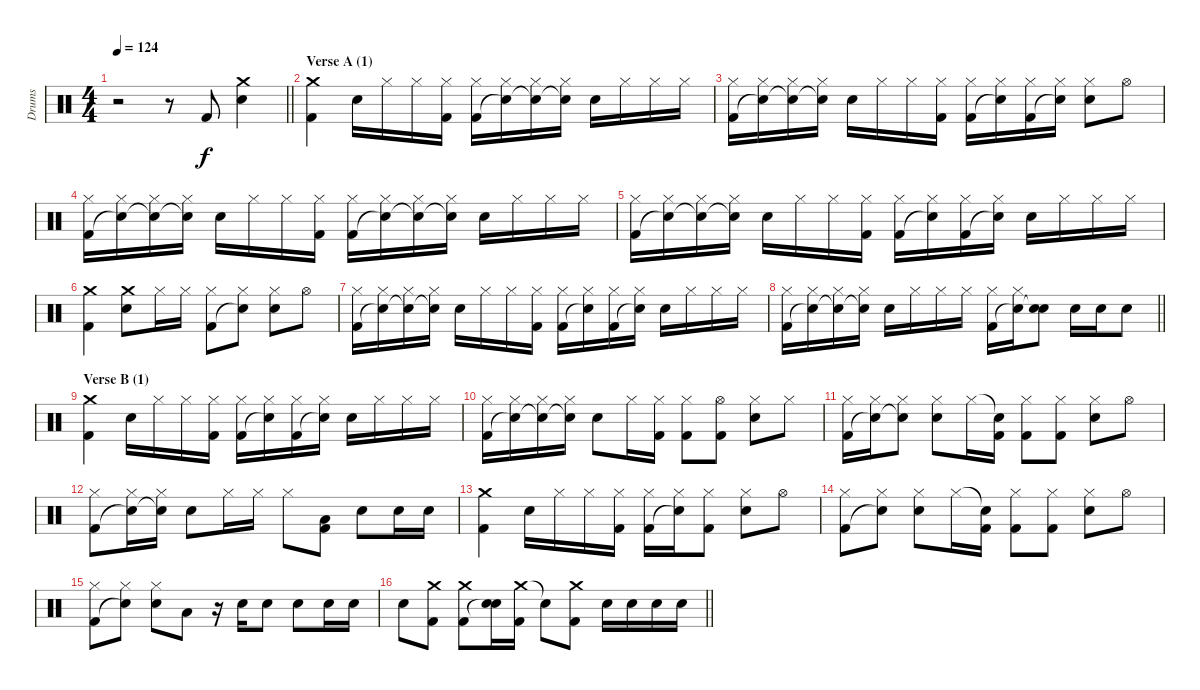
\track ("Drums" "Drums") {instrument percussion}
\staff {score}
\articulation defaults
\ts (4 4)
\tempo 124
\clef neutral
\barLineRight lightlight
\ks aminor
r.2{dy f} r.8 "Kick (hit) 2".8 ("Crash medium (hit)" "Electric Snare (hit)").4 |
\section ("" "Verse A (1)")
("Crash medium (hit)" "Kick (hit) 2").4 "Electric Snare (hit)".16 "Hi-Hat (closed)".16 "Hi-Hat (closed)".16 ("Hi-Hat (closed)" "Kick (hit) 2").16 ("Hi-Hat (closed)" "Kick (hit) 2").16 ("Hi-Hat (closed)" "Snare (hit)"{t}).16 ("Hi-Hat (closed)" "Snare (hit)"{t}).16 ("Hi-Hat (closed)" "Snare (hit)"{t}).16 "Electric Snare (hit)".16 "Hi-Hat (closed)".16 "Hi-Hat (closed)".16 "Hi-Hat (closed)".16 |
("Hi-Hat (closed)" "Kick (hit) 2").16 ("Hi-Hat (closed)" "Snare (hit)"{t}).16 ("Hi-Hat (closed)" "Snare (hit)"{t}).16 ("Hi-Hat (closed)" "Snare (hit)"{t}).16 "Electric Snare (hit)".16 "Hi-Hat (closed)".16 "Hi-Hat (closed)".16 ("Hi-Hat (closed)" "Kick (hit) 2").16 ("Hi-Hat (closed)" "Kick (hit) 2").16 ("Hi-Hat (closed)" "Snare (hit)"{t}).16 ("Hi-Hat (closed)" "Kick (hit) 2").16 ("Hi-Hat (closed)" "Snare (hit)"{t}).16 ("Hi-Hat (closed)" "Electric Snare (hit)").8 "Hi-Hat (open)".8 |
("Hi-Hat (closed)" "Kick (hit) 2").16 ("Hi-Hat (closed)" "Snare (hit)"{t}).16 ("Hi-Hat (closed)" "Snare (hit)"{t}).16 ("Hi-Hat (closed)" "Snare (hit)"{t}).16 "Electric Snare (hit)".16 "Hi-Hat (closed)".16 "Hi-Hat (closed)".16 ("Hi-Hat (closed)" "Kick (hit) 2").16 ("Hi-Hat (closed)" "Kick (hit) 2").16 ("Hi-Hat (closed)" "Snare (hit)"{t}).16 ("Hi-Hat (closed)" "Snare (hit)"{t}).16 ("Hi-Hat (closed)" "Snare (hit)"{t}).16 "Electric Snare (hit)".16 "Hi-Hat (closed)".16 "Hi-Hat (closed)".16 "Hi-Hat (closed)".16 |
("Hi-Hat (closed)" "Kick (hit) 2").16 ("Hi-Hat (closed)" "Snare (hit)"{t}).16 ("Hi-Hat (closed)" "Snare (hit)"{t}).16 ("Hi-Hat (closed)" "Snare (hit)"{t}).16 "Electric Snare (hit)".16 "Hi-Hat (closed)".16 "Hi-Hat (closed)".16 ("Hi-Hat (closed)" "Kick (hit) 2").16 ("Hi-Hat (closed)" "Kick (hit) 2").16 ("Hi-Hat (closed)" "Snare (hit)"{t}).16 ("Hi-Hat (closed)" "Kick (hit) 2").16 ("Hi-Hat (closed)" "Snare (hit)"{t}).16 "Electric Snare (hit)".16 "Hi-Hat (closed)".16 "Hi-Hat (closed)".16 "Hi-Hat (closed)".16 |
("Crash medium (hit)" "Kick (hit) 2").4 ("Crash medium (hit)" "Electric Snare (hit)").8 "Hi-Hat (closed)".16 "Hi-Hat (closed)".16 ("Hi-Hat (closed)" "Kick (hit) 2").8 ("Hi-Hat (closed)" "Snare (hit)"{t}).8 ("Hi-Hat (closed)" "Electric Snare (hit)").8 "Hi-Hat (open)".8 |
("Hi-Hat (closed)" "Kick (hit) 2").16 ("Hi-Hat (closed)" "Snare (hit)"{t}).16 ("Hi-Hat (closed)" "Snare (hit)"{t}).16 ("Hi-Hat (closed)" "Snare (hit)"{t}).16 "Electric Snare (hit)".16 "Hi-Hat (closed)".16 "Hi-Hat (closed)".16 ("Hi-Hat (closed)" "Kick (hit) 2").16 ("Hi-Hat (closed)" "Kick (hit) 2").16 ("Hi-Hat (closed)" "Snare (hit)"{t}).16 ("Hi-Hat (closed)" "Kick (hit) 2").16 ("Hi-Hat (closed)" "Snare (hit)"{t}).16 "Electric Snare (hit)".16 "Hi-Hat (closed)".16 "Hi-Hat (closed)".16 "Hi-Hat (closed)".16 |
\barLineRight lightlight
("Hi-Hat (closed)" "Kick (hit) 2").16 ("Hi-Hat (closed)" "Snare (hit)"{t}).16 ("Hi-Hat (closed)" "Snare (hit)"{t}).16 ("Hi-Hat (closed)" "Snare (hit)"{t}).16 "Electric Snare (hit)".16 "Hi-Hat (closed)".16 "Hi-Hat (closed)".16 "Hi-Hat (closed)".16 ("Hi-Hat (closed)" "Kick (hit) 2").16 ("Hi-Hat (closed)" "Snare (hit)"{t}).16 ("Electric Snare (hit)" "Snare (hit)"{t}).8 "Electric Snare (hit)".16 "Electric Snare (hit)".16 "Electric Snare (hit)".8 |
\section ("" "Verse B (1)")
("Crash medium (hit)" "Kick (hit) 2").4 "Electric Snare (hit)".16 "Hi-Hat (closed)".16 "Hi-Hat (closed)".16 ("Hi-Hat (closed)" "Kick (hit) 2").16 ("Hi-Hat (closed)" "Kick (hit) 2").16 ("Hi-Hat (closed)" "Snare (hit)"{t}).16 ("Hi-Hat (closed)" "Kick (hit) 2").16 ("Hi-Hat (closed)" "Snare (hit)"{t}).16 "Electric Snare (hit)".16 "Hi-Hat (closed)".16 "Hi-Hat (closed)".16 "Hi-Hat (closed)".16 |
("Hi-Hat (closed)" "Kick (hit) 2").16 ("Hi-Hat (closed)" "Snare (hit)"{t}).16 ("Hi-Hat (closed)" "Snare (hit)"{t}).16 ("Hi-Hat (closed)" "Snare (hit)"{t}).16 "Electric Snare (hit)".8 "Hi-Hat (closed)".16 ("Hi-Hat (closed)" "Kick (hit) 2").16 ("Hi-Hat (closed)" "Kick (hit) 2").8 ("Hi-Hat (open)" "Kick (hit) 2").8 ("Hi-Hat (closed)" "Electric Snare (hit)").8 "Hi-Hat (closed)".8 |
("Hi-Hat (closed)" "Kick (hit) 2").16 ("Hi-Hat (closed)" "Snare (hit)"{t}).16 ("Hi-Hat (closed)" "Snare (hit)"{t}).8 ("Hi-Hat (closed)" "Electric Snare (hit)").8 "Hi-Hat (closed)".16 ("Snare (hit)"{t} "Kick (hit) 2").16 ("Hi-Hat (closed)" "Kick (hit) 2").8 ("Hi-Hat (closed)" "Kick (hit) 2").8 ("Hi-Hat (closed)" "Electric Snare (hit)").8 "Hi-Hat (open)".8 |
("Hi-Hat (closed)" "Kick (hit) 2").8 ("Hi-Hat (closed)" "Snare (hit)"{t}).16 ("Hi-Hat (closed)" "Snare (hit)"{t}).16 "Electric Snare (hit)".8 "Hi-Hat (closed)".16 "Hi-Hat (closed)".16 "Hi-Hat (closed)".8 ("Low Tom (hit)" "Kick (hit) 2").8 "Electric Snare (hit)".8 "Electric Snare (hit)".16 "Electric Snare (hit)".16 |
("Crash medium (hit)" "Kick (hit) 2").4 "Electric Snare (hit)".16 "Hi-Hat (closed)".16 "Hi-Hat (closed)".16 ("Hi-Hat (closed)" "Kick (hit) 2").16 ("Hi-Hat (closed)" "Kick (hit) 2").16 ("Hi-Hat (closed)" "Snare (hit)"{t}).16 ("Hi-Hat (closed)" "Kick (hit) 2").8 ("Hi-Hat (closed)" "Electric Snare (hit)").8 "Hi-Hat (open)".8 |
("Hi-Hat (closed)" "Kick (hit) 2").8 ("Hi-Hat (closed)" "Snare (hit)"{t}).8 ("Hi-Hat (closed)" "Electric Snare (hit)").8 "Hi-Hat (closed)".16 ("Snare (hit)"{t} "Kick (hit) 2").16 ("Hi-Hat (closed)" "Kick (hit) 2").8 ("Hi-Hat (closed)" "Kick (hit) 2").8 ("Hi-Hat (closed)" "Electric Snare (hit)").8 "Hi-Hat (open)".8 |
("Hi-Hat (closed)" "Kick (hit) 2").8 ("Hi-Hat (closed)" "Snare (hit)"{t}).8 ("Hi-Hat (closed)" "Electric Snare (hit)").8 "Low Tom (hit)".8 r.16 "Electric Snare (hit)".16 "Electric Snare (hit)".8 "Electric Snare (hit)".8 "Electric Snare (hit)".16 "Electric Snare (hit)".16 |
\barLineRight lightlight "Electric Snare (hit)".8
("Crash medium (hit)" "Kick (hit) 2").8 ("Crash medium (hit)" "Kick (hit) 2").8 ("Electric Snare (hit)" "Snare (hit)"{t}).16 ("Crash medium (hit)" "Kick (hit) 2").16 "Snare (hit)"{t}.8 ("Crash medium (hit)" "Kick (hit) 2").8 "Electric Snare (hit)".16 "Electric Snare (hit)".16 "Electric Snare (hit)".16 "Electric Snare (hit)".16
